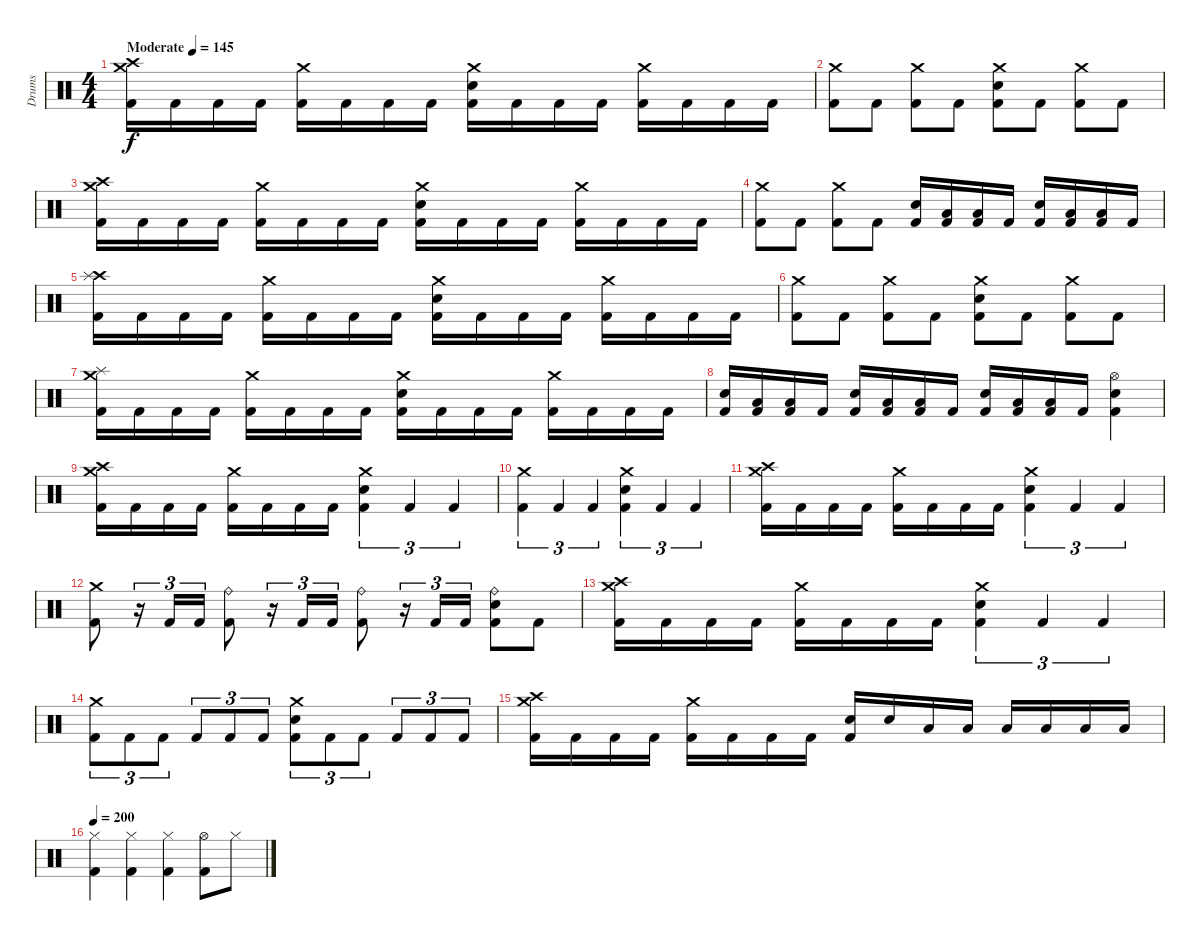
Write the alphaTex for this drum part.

\track ("Drums" "Drums") {instrument percussion}
\staff {score}
\articulation defaults
\ts (4 4)
\tempo (145 "Moderate")
\clef neutral
\ks c
("Crash high (hit)" "Crash medium (hit)" "Kick (hit) 2").16{dy f} "Kick (hit) 2".16 "Kick (hit) 2".16 "Kick (hit) 2".16 ("Crash medium (hit)" "Kick (hit) 2").16 "Kick (hit) 2".16 "Kick (hit) 2".16 "Kick (hit) 2".16 ("Crash medium (hit)" "Snare (hit) 2" "Kick (hit) 2").16 "Kick (hit) 2".16 "Kick (hit) 2".16 "Kick (hit) 2".16 ("Crash medium (hit)" "Kick (hit) 2").16 "Kick (hit) 2".16 "Kick (hit) 2".16 "Kick (hit) 2".16 |
("Crash medium (hit)" "Kick (hit) 2").8 "Kick (hit) 2".8 ("Crash medium (hit)" "Kick (hit) 2").8 "Kick (hit) 2".8 ("Crash medium (hit)" "Snare (hit) 2" "Kick (hit) 2").8 "Kick (hit) 2".8 ("Crash medium (hit)" "Kick (hit) 2").8 "Kick (hit) 2".8 |
("Crash high (hit)" "Crash medium (hit)" "Kick (hit) 2").16 "Kick (hit) 2".16 "Kick (hit) 2".16 "Kick (hit) 2".16 ("Crash medium (hit)" "Kick (hit) 2").16 "Kick (hit) 2".16 "Kick (hit) 2".16 "Kick (hit) 2".16 ("Crash medium (hit)" "Snare (hit) 2" "Kick (hit) 2").16 "Kick (hit) 2".16 "Kick (hit) 2".16 "Kick (hit) 2".16 ("Crash medium (hit)" "Kick (hit) 2").16 "Kick (hit) 2".16 "Kick (hit) 2".16 "Kick (hit) 2".16 |
("Crash medium (hit)" "Kick (hit) 2").8 "Kick (hit) 2".8 ("Crash medium (hit)" "Kick (hit) 2").8 "Kick (hit) 2".8 ("Snare (hit) 2" "Kick (hit) 2").16 ("Low Floor Tom (hit)" "Kick (hit) 2").16 ("Low Tom (hit)" "Kick (hit) 2").16 "Kick (hit) 2".16 ("Snare (hit) 2" "Kick (hit) 2").16 ("Low Floor Tom (hit)" "Kick (hit) 2").16 ("Low Tom (hit)" "Kick (hit) 2").16 "Kick (hit) 2".16 |
("Crash high (hit)" "Splash (hit)" "Kick (hit) 2").16 "Kick (hit) 2".16 "Kick (hit) 2".16 "Kick (hit) 2".16 ("Crash medium (hit)" "Kick (hit) 2").16 "Kick (hit) 2".16 "Kick (hit) 2".16 "Kick (hit) 2".16 ("Crash medium (hit)" "Snare (hit) 2" "Kick (hit) 2").16 "Kick (hit) 2".16 "Kick (hit) 2".16 "Kick (hit) 2".16 ("Crash medium (hit)" "Kick (hit) 2").16 "Kick (hit) 2".16 "Kick (hit) 2".16 "Kick (hit) 2".16 |
("Crash medium (hit)" "Kick (hit) 2").8 "Kick (hit) 2".8 ("Crash medium (hit)" "Kick (hit) 2").8 "Kick (hit) 2".8 ("Crash medium (hit)" "Snare (hit) 2" "Kick (hit) 2").8 "Kick (hit) 2".8 ("Crash medium (hit)" "Kick (hit) 2").8 "Kick (hit) 2".8 |
("Crash medium (hit)" "Splash (hit)" "Kick (hit) 2").16 "Kick (hit) 2".16 "Kick (hit) 2".16 "Kick (hit) 2".16 ("Crash medium (hit)" "Kick (hit) 2").16 "Kick (hit) 2".16 "Kick (hit) 2".16 "Kick (hit) 2".16 ("Crash medium (hit)" "Snare (hit) 2" "Kick (hit) 2").16 "Kick (hit) 2".16 "Kick (hit) 2".16 "Kick (hit) 2".16 ("Crash medium (hit)" "Kick (hit) 2").16 "Kick (hit) 2".16 "Kick (hit) 2".16 "Kick (hit) 2".16 |
("Snare (hit) 2" "Kick (hit) 2").16 ("Low Floor Tom (hit)" "Kick (hit) 2").16 ("Low Tom (hit)" "Kick (hit) 2").16 "Kick (hit) 2".16 ("Snare (hit) 2" "Kick (hit) 2").16 ("Low Floor Tom (hit)" "Kick (hit) 2").16 ("Low Tom (hit)" "Kick (hit) 2").16 "Kick (hit) 2".16 ("Snare (hit) 2" "Kick (hit) 2").16 ("Low Floor Tom (hit)" "Kick (hit) 2").16 ("Low Tom (hit)" "Kick (hit) 2").16 "Kick (hit) 2".16 ("Hi-Hat (open)" "Snare (hit) 2" "Kick (hit) 2").4 |
("Crash high (hit)" "Crash medium (hit)" "Kick (hit) 2").16 "Kick (hit) 2".16 "Kick (hit) 2".16 "Kick (hit) 2".16 ("Crash medium (hit)" "Kick (hit) 2").16 "Kick (hit) 2".16 "Kick (hit) 2".16 "Kick (hit) 2".16 ("Crash medium (hit)" "Snare (hit) 2" "Kick (hit) 2").4{tu (3 2)} "Kick (hit) 2".4{tu (3 2)} "Kick (hit) 2".4{tu (3 2)} |
("Crash medium (hit)" "Kick (hit) 2").4{tu (3 2)} "Kick (hit) 2".4{tu (3 2)} "Kick (hit) 2".4{tu (3 2)} ("Crash medium (hit)" "Snare (hit) 2" "Kick (hit) 2").4{tu (3 2)} "Kick (hit) 2".4{tu (3 2)} "Kick (hit) 2".4{tu (3 2)} |
("Crash high (hit)" "Crash medium (hit)" "Kick (hit) 2").16 "Kick (hit) 2".16 "Kick (hit) 2".16 "Kick (hit) 2".16 ("Crash medium (hit)" "Kick (hit) 2").16 "Kick (hit) 2".16 "Kick (hit) 2".16 "Kick (hit) 2".16 ("Crash medium (hit)" "Snare (hit) 2" "Kick (hit) 2").4{tu (3 2)} "Kick (hit) 2".4{tu (3 2)} "Kick (hit) 2".4{tu (3 2)} |
("Crash medium (hit)" "Kick (hit) 2").8 r.16{tu (3 2)} "Kick (hit) 2".16{tu (3 2)} "Kick (hit) 2".16{tu (3 2)} ("Ride (bell)" "Kick (hit) 2").8 r.16{tu (3 2)} "Kick (hit) 2".16{tu (3 2)} "Kick (hit) 2".16{tu (3 2)} ("Ride (bell)" "Kick (hit) 2").8 r.16{tu (3 2)} "Kick (hit) 2".16{tu (3 2)} "Kick (hit) 2".16{tu (3 2)} ("Ride (bell)" "Snare (hit) 2" "Kick (hit) 2").8 "Kick (hit) 2".8 |
("Crash high (hit)" "Crash medium (hit)" "Kick (hit) 2").16 "Kick (hit) 2".16 "Kick (hit) 2".16 "Kick (hit) 2".16 ("Crash medium (hit)" "Kick (hit) 2").16 "Kick (hit) 2".16 "Kick (hit) 2".16 "Kick (hit) 2".16 ("Crash medium (hit)" "Snare (hit) 2" "Kick (hit) 2").4{tu (3 2)} "Kick (hit) 2".4{tu (3 2)} "Kick (hit) 2".4{tu (3 2)} |
("Crash medium (hit)" "Kick (hit) 2").8{tu (3 2)} "Kick (hit) 2".8{tu (3 2)} "Kick (hit) 2".8{tu (3 2)} "Kick (hit) 2".8{tu (3 2)} "Kick (hit) 2".8{tu (3 2)} "Kick (hit) 2".8{tu (3 2)} ("Crash medium (hit)" "Snare (hit) 2" "Kick (hit) 2").8{tu (3 2)} "Kick (hit) 2".8{tu (3 2)} "Kick (hit) 2".8{tu (3 2)} "Kick (hit) 2".8{tu (3 2)} "Kick (hit) 2".8{tu (3 2)} "Kick (hit) 2".8{tu (3 2)} |
("Crash high (hit)" "Crash medium (hit)" "Kick (hit) 2").16 "Kick (hit) 2".16 "Kick (hit) 2".16 "Kick (hit) 2".16 ("Crash medium (hit)" "Kick (hit) 2").16 "Kick (hit) 2".16 "Kick (hit) 2".16 "Kick (hit) 2".16 ("Snare (hit) 2" "Kick (hit) 2").16 "Snare (hit) 2".16 "Low Tom (hit)".16 "Low Tom (hit)".16 "Low Floor Tom (hit)".16 "Low Floor Tom (hit)".16 "Low Floor Tom (hit)".16 "Low Floor Tom (hit)".16 |
\tempo 200
("Hi-Hat (closed)" "Kick (hit) 2").4 ("Hi-Hat (closed)" "Kick (hit) 2").4 ("Hi-Hat (closed)" "Kick (hit) 2").4 ("Hi-Hat (open)" "Kick (hit) 2").8 "Hi-Hat (closed)".8
